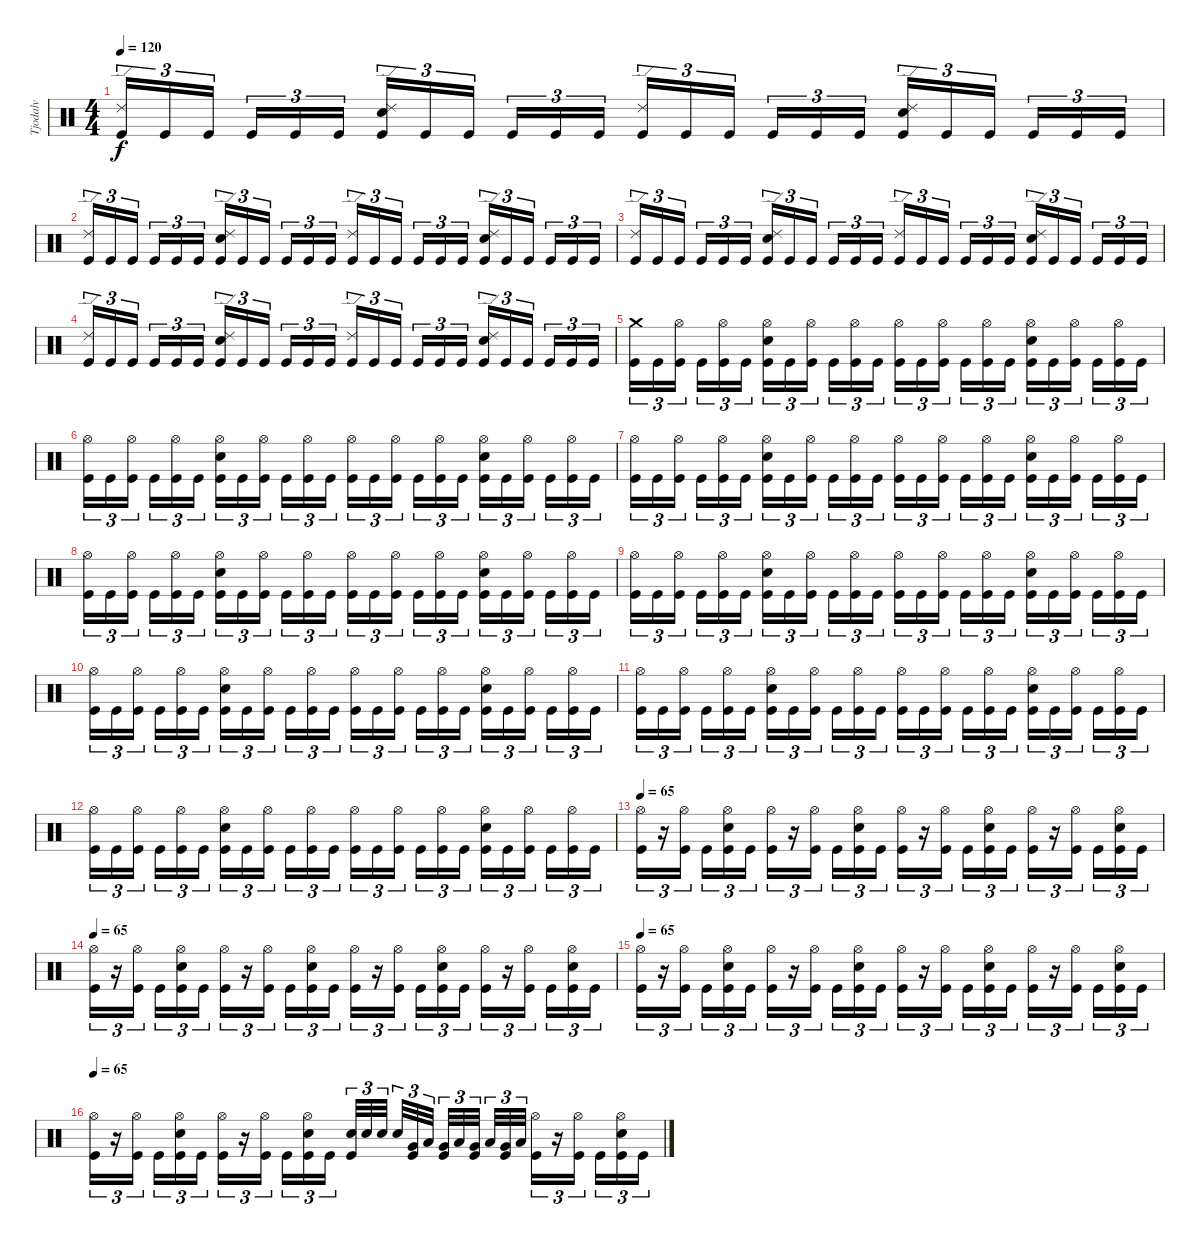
\track ("Tjodalv" "Tjodalv") {instrument percussion}
\staff {score}
\articulation defaults
\ts (4 4)
\tempo 120
\clef neutral
\ks c
("Ride (edge) 2" "Kick (hit)").16{tu (3 2) dy f} "Kick (hit)".16{tu (3 2)} "Kick (hit)".16{tu (3 2)} "Kick (hit)".16{tu (3 2)} "Kick (hit)".16{tu (3 2)} "Kick (hit)".16{tu (3 2)} ("Ride (edge) 2" "Snare (hit) 2" "Kick (hit)").16{tu (3 2)} "Kick (hit)".16{tu (3 2)} "Kick (hit)".16{tu (3 2)} "Kick (hit)".16{tu (3 2)} "Kick (hit)".16{tu (3 2)} "Kick (hit)".16{tu (3 2)} ("Ride (edge) 2" "Kick (hit)").16{tu (3 2)} "Kick (hit)".16{tu (3 2)} "Kick (hit)".16{tu (3 2)} "Kick (hit)".16{tu (3 2)} "Kick (hit)".16{tu (3 2)} "Kick (hit)".16{tu (3 2)} ("Ride (edge) 2" "Snare (hit) 2" "Kick (hit)").16{tu (3 2)} "Kick (hit)".16{tu (3 2)} "Kick (hit)".16{tu (3 2)} "Kick (hit)".16{tu (3 2)} "Kick (hit)".16{tu (3 2)} "Kick (hit)".16{tu (3 2)} |
("Ride (edge) 2" "Kick (hit)").16{tu (3 2)} "Kick (hit)".16{tu (3 2)} "Kick (hit)".16{tu (3 2)} "Kick (hit)".16{tu (3 2)} "Kick (hit)".16{tu (3 2)} "Kick (hit)".16{tu (3 2)} ("Ride (edge) 2" "Snare (hit) 2" "Kick (hit)").16{tu (3 2)} "Kick (hit)".16{tu (3 2)} "Kick (hit)".16{tu (3 2)} "Kick (hit)".16{tu (3 2)} "Kick (hit)".16{tu (3 2)} "Kick (hit)".16{tu (3 2)} ("Ride (edge) 2" "Kick (hit)").16{tu (3 2)} "Kick (hit)".16{tu (3 2)} "Kick (hit)".16{tu (3 2)} "Kick (hit)".16{tu (3 2)} "Kick (hit)".16{tu (3 2)} "Kick (hit)".16{tu (3 2)} ("Ride (edge) 2" "Snare (hit) 2" "Kick (hit)").16{tu (3 2)} "Kick (hit)".16{tu (3 2)} "Kick (hit)".16{tu (3 2)} "Kick (hit)".16{tu (3 2)} "Kick (hit)".16{tu (3 2)} "Kick (hit)".16{tu (3 2)} |
("Ride (edge) 2" "Kick (hit)").16{tu (3 2)} "Kick (hit)".16{tu (3 2)} "Kick (hit)".16{tu (3 2)} "Kick (hit)".16{tu (3 2)} "Kick (hit)".16{tu (3 2)} "Kick (hit)".16{tu (3 2)} ("Ride (edge) 2" "Snare (hit) 2" "Kick (hit)").16{tu (3 2)} "Kick (hit)".16{tu (3 2)} "Kick (hit)".16{tu (3 2)} "Kick (hit)".16{tu (3 2)} "Kick (hit)".16{tu (3 2)} "Kick (hit)".16{tu (3 2)} ("Ride (edge) 2" "Kick (hit)").16{tu (3 2)} "Kick (hit)".16{tu (3 2)} "Kick (hit)".16{tu (3 2)} "Kick (hit)".16{tu (3 2)} "Kick (hit)".16{tu (3 2)} "Kick (hit)".16{tu (3 2)} ("Ride (edge) 2" "Snare (hit) 2" "Kick (hit)").16{tu (3 2)} "Kick (hit)".16{tu (3 2)} "Kick (hit)".16{tu (3 2)} "Kick (hit)".16{tu (3 2)} "Kick (hit)".16{tu (3 2)} "Kick (hit)".16{tu (3 2)} |
("Ride (edge) 2" "Kick (hit)").16{tu (3 2)} "Kick (hit)".16{tu (3 2)} "Kick (hit)".16{tu (3 2)} "Kick (hit)".16{tu (3 2)} "Kick (hit)".16{tu (3 2)} "Kick (hit)".16{tu (3 2)} ("Ride (edge) 2" "Snare (hit) 2" "Kick (hit)").16{tu (3 2)} "Kick (hit)".16{tu (3 2)} "Kick (hit)".16{tu (3 2)} "Kick (hit)".16{tu (3 2)} "Kick (hit)".16{tu (3 2)} "Kick (hit)".16{tu (3 2)} ("Ride (edge) 2" "Kick (hit)").16{tu (3 2)} "Kick (hit)".16{tu (3 2)} "Kick (hit)".16{tu (3 2)} "Kick (hit)".16{tu (3 2)} "Kick (hit)".16{tu (3 2)} "Kick (hit)".16{tu (3 2)} ("Ride (edge) 2" "Snare (hit) 2" "Kick (hit)").16{tu (3 2)} "Kick (hit)".16{tu (3 2)} "Kick (hit)".16{tu (3 2)} "Kick (hit)".16{tu (3 2)} "Kick (hit)".16{tu (3 2)} "Kick (hit)".16{tu (3 2)} |
("Crash medium (hit)" "Kick (hit)").16{tu (3 2)} "Kick (hit)".16{tu (3 2)} ("Hi-Hat (open)" "Kick (hit)").16{tu (3 2)} "Kick (hit)".16{tu (3 2)} ("Hi-Hat (open)" "Kick (hit)").16{tu (3 2)} "Kick (hit)".16{tu (3 2)} ("Hi-Hat (open)" "Snare (hit) 2" "Kick (hit)").16{tu (3 2)} "Kick (hit)".16{tu (3 2)} ("Hi-Hat (open)" "Kick (hit)").16{tu (3 2)} "Kick (hit)".16{tu (3 2)} ("Hi-Hat (open)" "Kick (hit)").16{tu (3 2)} "Kick (hit)".16{tu (3 2)} ("Hi-Hat (open)" "Kick (hit)").16{tu (3 2)} "Kick (hit)".16{tu (3 2)} ("Hi-Hat (open)" "Kick (hit)").16{tu (3 2)} "Kick (hit)".16{tu (3 2)} ("Hi-Hat (open)" "Kick (hit)").16{tu (3 2)} "Kick (hit)".16{tu (3 2)} ("Hi-Hat (open)" "Snare (hit) 2" "Kick (hit)").16{tu (3 2)} "Kick (hit)".16{tu (3 2)} ("Hi-Hat (open)" "Kick (hit)").16{tu (3 2)} "Kick (hit)".16{tu (3 2)} ("Hi-Hat (open)" "Kick (hit)").16{tu (3 2)} "Kick (hit)".16{tu (3 2)} |
("Hi-Hat (open)" "Kick (hit)").16{tu (3 2)} "Kick (hit)".16{tu (3 2)} ("Hi-Hat (open)" "Kick (hit)").16{tu (3 2)} "Kick (hit)".16{tu (3 2)} ("Hi-Hat (open)" "Kick (hit)").16{tu (3 2)} "Kick (hit)".16{tu (3 2)} ("Hi-Hat (open)" "Snare (hit) 2" "Kick (hit)").16{tu (3 2)} "Kick (hit)".16{tu (3 2)} ("Hi-Hat (open)" "Kick (hit)").16{tu (3 2)} "Kick (hit)".16{tu (3 2)} ("Hi-Hat (open)" "Kick (hit)").16{tu (3 2)} "Kick (hit)".16{tu (3 2)} ("Hi-Hat (open)" "Kick (hit)").16{tu (3 2)} "Kick (hit)".16{tu (3 2)} ("Hi-Hat (open)" "Kick (hit)").16{tu (3 2)} "Kick (hit)".16{tu (3 2)} ("Hi-Hat (open)" "Kick (hit)").16{tu (3 2)} "Kick (hit)".16{tu (3 2)} ("Hi-Hat (open)" "Snare (hit) 2" "Kick (hit)").16{tu (3 2)} "Kick (hit)".16{tu (3 2)} ("Hi-Hat (open)" "Kick (hit)").16{tu (3 2)} "Kick (hit)".16{tu (3 2)} ("Hi-Hat (open)" "Kick (hit)").16{tu (3 2)} "Kick (hit)".16{tu (3 2)} |
("Hi-Hat (open)" "Kick (hit)").16{tu (3 2)} "Kick (hit)".16{tu (3 2)} ("Hi-Hat (open)" "Kick (hit)").16{tu (3 2)} "Kick (hit)".16{tu (3 2)} ("Hi-Hat (open)" "Kick (hit)").16{tu (3 2)} "Kick (hit)".16{tu (3 2)} ("Hi-Hat (open)" "Snare (hit) 2" "Kick (hit)").16{tu (3 2)} "Kick (hit)".16{tu (3 2)} ("Hi-Hat (open)" "Kick (hit)").16{tu (3 2)} "Kick (hit)".16{tu (3 2)} ("Hi-Hat (open)" "Kick (hit)").16{tu (3 2)} "Kick (hit)".16{tu (3 2)} ("Hi-Hat (open)" "Kick (hit)").16{tu (3 2)} "Kick (hit)".16{tu (3 2)} ("Hi-Hat (open)" "Kick (hit)").16{tu (3 2)} "Kick (hit)".16{tu (3 2)} ("Hi-Hat (open)" "Kick (hit)").16{tu (3 2)} "Kick (hit)".16{tu (3 2)} ("Hi-Hat (open)" "Snare (hit) 2" "Kick (hit)").16{tu (3 2)} "Kick (hit)".16{tu (3 2)} ("Hi-Hat (open)" "Kick (hit)").16{tu (3 2)} "Kick (hit)".16{tu (3 2)} ("Hi-Hat (open)" "Kick (hit)").16{tu (3 2)} "Kick (hit)".16{tu (3 2)} |
("Hi-Hat (open)" "Kick (hit)").16{tu (3 2)} "Kick (hit)".16{tu (3 2)} ("Hi-Hat (open)" "Kick (hit)").16{tu (3 2)} "Kick (hit)".16{tu (3 2)} ("Hi-Hat (open)" "Kick (hit)").16{tu (3 2)} "Kick (hit)".16{tu (3 2)} ("Hi-Hat (open)" "Snare (hit) 2" "Kick (hit)").16{tu (3 2)} "Kick (hit)".16{tu (3 2)} ("Hi-Hat (open)" "Kick (hit)").16{tu (3 2)} "Kick (hit)".16{tu (3 2)} ("Hi-Hat (open)" "Kick (hit)").16{tu (3 2)} "Kick (hit)".16{tu (3 2)} ("Hi-Hat (open)" "Kick (hit)").16{tu (3 2)} "Kick (hit)".16{tu (3 2)} ("Hi-Hat (open)" "Kick (hit)").16{tu (3 2)} "Kick (hit)".16{tu (3 2)} ("Hi-Hat (open)" "Kick (hit)").16{tu (3 2)} "Kick (hit)".16{tu (3 2)} ("Hi-Hat (open)" "Snare (hit) 2" "Kick (hit)").16{tu (3 2)} "Kick (hit)".16{tu (3 2)} ("Hi-Hat (open)" "Kick (hit)").16{tu (3 2)} "Kick (hit)".16{tu (3 2)} ("Hi-Hat (open)" "Kick (hit)").16{tu (3 2)} "Kick (hit)".16{tu (3 2)} |
("Hi-Hat (open)" "Kick (hit)").16{tu (3 2)} "Kick (hit)".16{tu (3 2)} ("Hi-Hat (open)" "Kick (hit)").16{tu (3 2)} "Kick (hit)".16{tu (3 2)} ("Hi-Hat (open)" "Kick (hit)").16{tu (3 2)} "Kick (hit)".16{tu (3 2)} ("Hi-Hat (open)" "Snare (hit) 2" "Kick (hit)").16{tu (3 2)} "Kick (hit)".16{tu (3 2)} ("Hi-Hat (open)" "Kick (hit)").16{tu (3 2)} "Kick (hit)".16{tu (3 2)} ("Hi-Hat (open)" "Kick (hit)").16{tu (3 2)} "Kick (hit)".16{tu (3 2)} ("Hi-Hat (open)" "Kick (hit)").16{tu (3 2)} "Kick (hit)".16{tu (3 2)} ("Hi-Hat (open)" "Kick (hit)").16{tu (3 2)} "Kick (hit)".16{tu (3 2)} ("Hi-Hat (open)" "Kick (hit)").16{tu (3 2)} "Kick (hit)".16{tu (3 2)} ("Hi-Hat (open)" "Snare (hit) 2" "Kick (hit)").16{tu (3 2)} "Kick (hit)".16{tu (3 2)} ("Hi-Hat (open)" "Kick (hit)").16{tu (3 2)} "Kick (hit)".16{tu (3 2)} ("Hi-Hat (open)" "Kick (hit)").16{tu (3 2)} "Kick (hit)".16{tu (3 2)} |
("Hi-Hat (open)" "Kick (hit)").16{tu (3 2)} "Kick (hit)".16{tu (3 2)} ("Hi-Hat (open)" "Kick (hit)").16{tu (3 2)} "Kick (hit)".16{tu (3 2)} ("Hi-Hat (open)" "Kick (hit)").16{tu (3 2)} "Kick (hit)".16{tu (3 2)} ("Hi-Hat (open)" "Snare (hit) 2" "Kick (hit)").16{tu (3 2)} "Kick (hit)".16{tu (3 2)} ("Hi-Hat (open)" "Kick (hit)").16{tu (3 2)} "Kick (hit)".16{tu (3 2)} ("Hi-Hat (open)" "Kick (hit)").16{tu (3 2)} "Kick (hit)".16{tu (3 2)} ("Hi-Hat (open)" "Kick (hit)").16{tu (3 2)} "Kick (hit)".16{tu (3 2)} ("Hi-Hat (open)" "Kick (hit)").16{tu (3 2)} "Kick (hit)".16{tu (3 2)} ("Hi-Hat (open)" "Kick (hit)").16{tu (3 2)} "Kick (hit)".16{tu (3 2)} ("Hi-Hat (open)" "Snare (hit) 2" "Kick (hit)").16{tu (3 2)} "Kick (hit)".16{tu (3 2)} ("Hi-Hat (open)" "Kick (hit)").16{tu (3 2)} "Kick (hit)".16{tu (3 2)} ("Hi-Hat (open)" "Kick (hit)").16{tu (3 2)} "Kick (hit)".16{tu (3 2)} |
("Hi-Hat (open)" "Kick (hit)").16{tu (3 2)} "Kick (hit)".16{tu (3 2)} ("Hi-Hat (open)" "Kick (hit)").16{tu (3 2)} "Kick (hit)".16{tu (3 2)} ("Hi-Hat (open)" "Kick (hit)").16{tu (3 2)} "Kick (hit)".16{tu (3 2)} ("Hi-Hat (open)" "Snare (hit) 2" "Kick (hit)").16{tu (3 2)} "Kick (hit)".16{tu (3 2)} ("Hi-Hat (open)" "Kick (hit)").16{tu (3 2)} "Kick (hit)".16{tu (3 2)} ("Hi-Hat (open)" "Kick (hit)").16{tu (3 2)} "Kick (hit)".16{tu (3 2)} ("Hi-Hat (open)" "Kick (hit)").16{tu (3 2)} "Kick (hit)".16{tu (3 2)} ("Hi-Hat (open)" "Kick (hit)").16{tu (3 2)} "Kick (hit)".16{tu (3 2)} ("Hi-Hat (open)" "Kick (hit)").16{tu (3 2)} "Kick (hit)".16{tu (3 2)} ("Hi-Hat (open)" "Snare (hit) 2" "Kick (hit)").16{tu (3 2)} "Kick (hit)".16{tu (3 2)} ("Hi-Hat (open)" "Kick (hit)").16{tu (3 2)} "Kick (hit)".16{tu (3 2)} ("Hi-Hat (open)" "Kick (hit)").16{tu (3 2)} "Kick (hit)".16{tu (3 2)} |
("Hi-Hat (open)" "Kick (hit)").16{tu (3 2)} "Kick (hit)".16{tu (3 2)} ("Hi-Hat (open)" "Kick (hit)").16{tu (3 2)} "Kick (hit)".16{tu (3 2)} ("Hi-Hat (open)" "Kick (hit)").16{tu (3 2)} "Kick (hit)".16{tu (3 2)} ("Hi-Hat (open)" "Snare (hit) 2" "Kick (hit)").16{tu (3 2)} "Kick (hit)".16{tu (3 2)} ("Hi-Hat (open)" "Kick (hit)").16{tu (3 2)} "Kick (hit)".16{tu (3 2)} ("Hi-Hat (open)" "Kick (hit)").16{tu (3 2)} "Kick (hit)".16{tu (3 2)} ("Hi-Hat (open)" "Kick (hit)").16{tu (3 2)} "Kick (hit)".16{tu (3 2)} ("Hi-Hat (open)" "Kick (hit)").16{tu (3 2)} "Kick (hit)".16{tu (3 2)} ("Hi-Hat (open)" "Kick (hit)").16{tu (3 2)} "Kick (hit)".16{tu (3 2)} ("Hi-Hat (open)" "Snare (hit) 2" "Kick (hit)").16{tu (3 2)} "Kick (hit)".16{tu (3 2)} ("Hi-Hat (open)" "Kick (hit)").16{tu (3 2)} "Kick (hit)".16{tu (3 2)} ("Hi-Hat (open)" "Kick (hit)").16{tu (3 2)} "Kick (hit)".16{tu (3 2)} |
\tempo 65
("Hi-Hat (open)" "Kick (hit)").16{tu (3 2)} r.16{tu (3 2)} ("Hi-Hat (open)" "Kick (hit)").16{tu (3 2)} "Kick (hit)".16{tu (3 2)} ("Hi-Hat (open)" "Snare (hit) 2" "Kick (hit)").16{tu (3 2)} "Kick (hit)".16{tu (3 2)} ("Hi-Hat (open)" "Kick (hit)").16{tu (3 2)} r.16{tu (3 2)} ("Hi-Hat (open)" "Kick (hit)").16{tu (3 2)} "Kick (hit)".16{tu (3 2)} ("Hi-Hat (open)" "Snare (hit) 2" "Kick (hit)").16{tu (3 2)} "Kick (hit)".16{tu (3 2)} ("Hi-Hat (open)" "Kick (hit)").16{tu (3 2)} r.16{tu (3 2)} ("Hi-Hat (open)" "Kick (hit)").16{tu (3 2)} "Kick (hit)".16{tu (3 2)} ("Hi-Hat (open)" "Snare (hit) 2" "Kick (hit)").16{tu (3 2)} "Kick (hit)".16{tu (3 2)} ("Hi-Hat (open)" "Kick (hit)").16{tu (3 2)} r.16{tu (3 2)} ("Hi-Hat (open)" "Kick (hit)").16{tu (3 2)} "Kick (hit)".16{tu (3 2)} ("Hi-Hat (open)" "Snare (hit) 2" "Kick (hit)").16{tu (3 2)} "Kick (hit)".16{tu (3 2)} |
\tempo 65
("Hi-Hat (open)" "Kick (hit)").16{tu (3 2)} r.16{tu (3 2)} ("Hi-Hat (open)" "Kick (hit)").16{tu (3 2)} "Kick (hit)".16{tu (3 2)} ("Hi-Hat (open)" "Snare (hit) 2" "Kick (hit)").16{tu (3 2)} "Kick (hit)".16{tu (3 2)} ("Hi-Hat (open)" "Kick (hit)").16{tu (3 2)} r.16{tu (3 2)} ("Hi-Hat (open)" "Kick (hit)").16{tu (3 2)} "Kick (hit)".16{tu (3 2)} ("Hi-Hat (open)" "Snare (hit) 2" "Kick (hit)").16{tu (3 2)} "Kick (hit)".16{tu (3 2)} ("Hi-Hat (open)" "Kick (hit)").16{tu (3 2)} r.16{tu (3 2)} ("Hi-Hat (open)" "Kick (hit)").16{tu (3 2)} "Kick (hit)".16{tu (3 2)} ("Hi-Hat (open)" "Snare (hit) 2" "Kick (hit)").16{tu (3 2)} "Kick (hit)".16{tu (3 2)} ("Hi-Hat (open)" "Kick (hit)").16{tu (3 2)} r.16{tu (3 2)} ("Hi-Hat (open)" "Kick (hit)").16{tu (3 2)} "Kick (hit)".16{tu (3 2)} ("Hi-Hat (open)" "Snare (hit) 2" "Kick (hit)").16{tu (3 2)} "Kick (hit)".16{tu (3 2)} |
\tempo 65
("Hi-Hat (open)" "Kick (hit)").16{tu (3 2)} r.16{tu (3 2)} ("Hi-Hat (open)" "Kick (hit)").16{tu (3 2)} "Kick (hit)".16{tu (3 2)} ("Hi-Hat (open)" "Snare (hit) 2" "Kick (hit)").16{tu (3 2)} "Kick (hit)".16{tu (3 2)} ("Hi-Hat (open)" "Kick (hit)").16{tu (3 2)} r.16{tu (3 2)} ("Hi-Hat (open)" "Kick (hit)").16{tu (3 2)} "Kick (hit)".16{tu (3 2)} ("Hi-Hat (open)" "Snare (hit) 2" "Kick (hit)").16{tu (3 2)} "Kick (hit)".16{tu (3 2)} ("Hi-Hat (open)" "Kick (hit)").16{tu (3 2)} r.16{tu (3 2)} ("Hi-Hat (open)" "Kick (hit)").16{tu (3 2)} "Kick (hit)".16{tu (3 2)} ("Hi-Hat (open)" "Snare (hit) 2" "Kick (hit)").16{tu (3 2)} "Kick (hit)".16{tu (3 2)} ("Hi-Hat (open)" "Kick (hit)").16{tu (3 2)} r.16{tu (3 2)} ("Hi-Hat (open)" "Kick (hit)").16{tu (3 2)} "Kick (hit)".16{tu (3 2)} ("Hi-Hat (open)" "Snare (hit) 2" "Kick (hit)").16{tu (3 2)} "Kick (hit)".16{tu (3 2)} |
\tempo 65
("Hi-Hat (open)" "Kick (hit)").16{tu (3 2)} r.16{tu (3 2)} ("Hi-Hat (open)" "Kick (hit)").16{tu (3 2)} "Kick (hit)".16{tu (3 2)} ("Hi-Hat (open)" "Snare (hit) 2" "Kick (hit)").16{tu (3 2)} "Kick (hit)".16{tu (3 2)} ("Hi-Hat (open)" "Kick (hit)").16{tu (3 2)} r.16{tu (3 2)} ("Hi-Hat (open)" "Kick (hit)").16{tu (3 2)} "Kick (hit)".16{tu (3 2)} ("Hi-Hat (open)" "Snare (hit) 2" "Kick (hit)").16{tu (3 2)} "Kick (hit)".16{tu (3 2)} ("Snare (hit) 2" "Kick (hit)").32{tu (3 2)} "Snare (hit) 2".32{tu (3 2)} "Snare (hit) 2".32{tu (3 2)} "Snare (hit) 2".32{tu (3 2)} ("Very Low Tom (hit)" "Kick (hit)").32{tu (3 2)} "Low Floor Tom (hit)".32{tu (3 2)} ("Very Low Tom (hit)" "Kick (hit)").32{tu (3 2)} "Low Floor Tom (hit)".32{tu (3 2)} ("Very Low Tom (hit)" "Kick (hit)").32{tu (3 2)} "Low Tom (hit)".32{tu (3 2)} ("Very Low Tom (hit)" "Kick (hit)").32{tu (3 2)} "Low Tom (hit)".32{tu (3 2)} ("Hi-Hat (open)" "Kick (hit)").16{tu (3 2)} r.16{tu (3 2)} ("Hi-Hat (open)" "Kick (hit)").16{tu (3 2)} "Kick (hit)".16{tu (3 2)} ("Hi-Hat (open)" "Snare (hit) 2" "Kick (hit)").16{tu (3 2)} "Kick (hit)".16{tu (3 2)}
